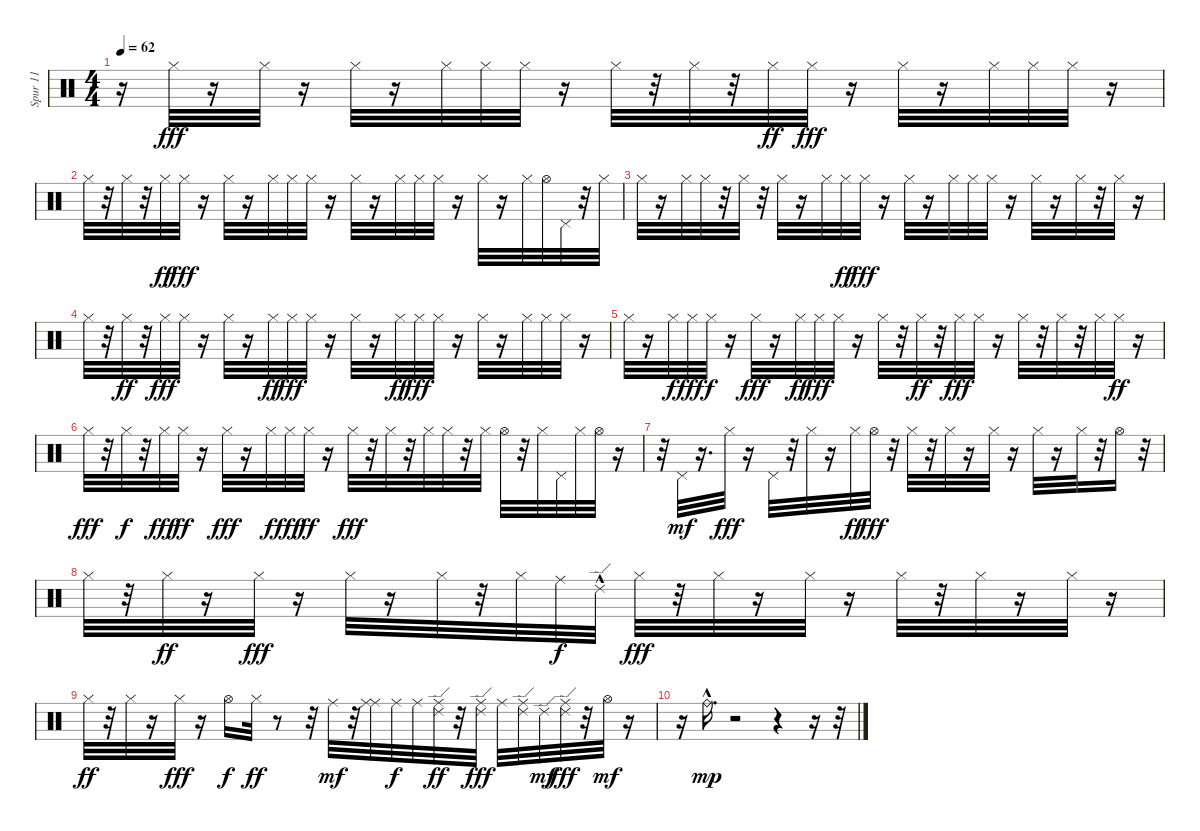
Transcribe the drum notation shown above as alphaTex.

\track ("Spur 11" "Spur 11") {instrument percussion}
\staff {score}
\articulation defaults
\ts (4 4)
\tempo 62
\clef neutral
\ks c
r.16{dy fff} "Hi-Hat (closed)".32 r.16 "Hi-Hat (closed)".32 r.16 "Hi-Hat (closed)".32 r.16 "Hi-Hat (closed)".32 "Hi-Hat (closed)".32 "Hi-Hat (closed)".32 r.16 "Hi-Hat (closed)".32 r.32 "Hi-Hat (closed)".32 r.32 "Hi-Hat (closed)".32{dy ff} "Hi-Hat (closed)".32{dy fff} r.16 "Hi-Hat (closed)".32 r.16 "Hi-Hat (closed)".32 "Hi-Hat (closed)".32 "Hi-Hat (closed)".32 r.16 |
"Hi-Hat (closed)".32 r.32 "Hi-Hat (closed)".32 r.32 "Hi-Hat (closed)".32{dy ff} "Hi-Hat (closed)".32{dy fff} r.16 "Hi-Hat (closed)".32 r.16 "Hi-Hat (closed)".32 "Hi-Hat (closed)".32 "Hi-Hat (closed)".32 r.16 "Hi-Hat (closed)".32 r.16 "Hi-Hat (closed)".32 "Hi-Hat (closed)".32 "Hi-Hat (closed)".32 r.16 "Hi-Hat (closed)".32 r.16 "Hi-Hat (closed)".32 "Hi-Hat (open)".32 "Pedal Hi-Hat (hit)".32 r.32 "Hi-Hat (closed)".32 |
"Hi-Hat (closed)".32 r.16 "Hi-Hat (closed)".32 "Hi-Hat (closed)".32 r.32 "Hi-Hat (closed)".32 r.32 "Hi-Hat (closed)".32 r.16 "Hi-Hat (closed)".32 "Hi-Hat (closed)".32{dy ff} "Hi-Hat (closed)".32{dy fff} r.16 "Hi-Hat (closed)".32 r.16 "Hi-Hat (closed)".32 "Hi-Hat (closed)".32 "Hi-Hat (closed)".32 r.16 "Hi-Hat (closed)".32 r.16 "Hi-Hat (closed)".32 r.32 "Hi-Hat (closed)".32 r.16 |
"Hi-Hat (closed)".32 r.32 "Hi-Hat (closed)".32{dy ff} r.32 "Hi-Hat (closed)".32{dy fff} "Hi-Hat (closed)".32 r.16 "Hi-Hat (closed)".32 r.16 "Hi-Hat (closed)".32{dy ff} "Hi-Hat (closed)".32{dy fff} "Hi-Hat (closed)".32 r.16 "Hi-Hat (closed)".32 r.16 "Hi-Hat (closed)".32{dy ff} "Hi-Hat (closed)".32{dy fff} "Hi-Hat (closed)".32 r.16 "Hi-Hat (closed)".32 r.16 "Hi-Hat (closed)".32 "Hi-Hat (closed)".32 "Hi-Hat (closed)".32 r.16 |
"Hi-Hat (closed)".32 r.16 "Hi-Hat (closed)".32{dy f} "Hi-Hat (closed)".32{dy fff} "Hi-Hat (closed)".32{dy f} r.16 "Hi-Hat (closed)".32{dy fff} r.16 "Hi-Hat (closed)".32{dy ff} "Hi-Hat (closed)".32{dy fff} "Hi-Hat (closed)".32 r.16 "Hi-Hat (closed)".32 r.32 "Hi-Hat (closed)".32{dy ff} r.32 "Hi-Hat (closed)".32{dy fff} "Hi-Hat (closed)".32 r.16 "Hi-Hat (closed)".32 r.32 "Hi-Hat (closed)".32 r.32 "Hi-Hat (closed)".32 "Hi-Hat (closed)".32{dy ff} r.16 |
"Hi-Hat (closed)".32{dy fff} r.32 "Hi-Hat (closed)".32{dy f} r.32 "Hi-Hat (closed)".32{dy fff} "Hi-Hat (closed)".32{dy ff} r.16 "Hi-Hat (closed)".32{dy fff} r.16 "Hi-Hat (closed)".32{dy f} "Hi-Hat (closed)".32{dy fff} "Hi-Hat (closed)".32{dy ff} r.16 "Hi-Hat (closed)".32{dy fff} r.32 "Hi-Hat (closed)".32 r.32 "Hi-Hat (closed)".32 "Hi-Hat (closed)".32 r.32 "Hi-Hat (closed)".32 "Hi-Hat (open)".32 r.32 "Hi-Hat (closed)".32 "Pedal Hi-Hat (hit)".32 "Hi-Hat (closed)".32 "Hi-Hat (open)".32 r.16 |
r.32 "Pedal Hi-Hat (hit)".32{dy mf} r.16{d} "Hi-Hat (closed)".32{dy fff} r.16 "Pedal Hi-Hat (hit)".32 r.32 "Hi-Hat (closed)".32 r.16 "Hi-Hat (closed)".32{dy ff} "Hi-Hat (open)".32{dy fff} r.32 "Hi-Hat (closed)".32 r.32 "Hi-Hat (closed)".32 r.16 "Hi-Hat (closed)".32 r.16 "Hi-Hat (closed)".32 r.16 "Hi-Hat (closed)".32 r.32 "Hi-Hat (open)".16 r.32 |
"Hi-Hat (closed)".32 r.32 "Hi-Hat (closed)".32{dy ff} r.16 "Hi-Hat (closed)".32{dy fff} r.16 "Hi-Hat (closed)".32 r.16 "Hi-Hat (closed)".32 r.32 "Hi-Hat (closed)".32 "Ride (middle)".32{dy f} "Ride (edge) 2"{hac}.32 "Hi-Hat (closed)".32{dy fff} r.32 "Hi-Hat (closed)".32 r.16 "Hi-Hat (closed)".32 r.16 "Hi-Hat (closed)".32 r.32 "Hi-Hat (closed)".32 r.16 "Hi-Hat (closed)".32 r.16 |
"Hi-Hat (closed)".32{dy ff} r.32 "Hi-Hat (closed)".32 r.16 "Hi-Hat (closed)".32{dy fff} r.16 "Hi-Hat (open)".16{dy f} "Hi-Hat (closed)".32{dy ff} r.8 r.32 "Ride (middle)".32{dy mf} r.32 ("Ride (middle)" "Ride (middle)").32 "Ride (middle)".32{dy f} "Ride (middle)".32 ("Ride (middle)" "Ride (edge) 2").32{dy ff} r.32 ("Ride (middle)" "Ride (edge) 2").32{dy fff} "Ride (middle)".32 ("Ride (edge) 2" "Ride (middle)").32 "Ride (edge) 2".32{dy mf} ("Ride (middle)" "Ride (edge) 2").32{dy fff} r.32 "Hi-Hat (open)".32{dy mf} r.16 |
r.16 "Ride (bell)"{hac}.16{d dy mp} r.2 r.4 r.16 r.32
